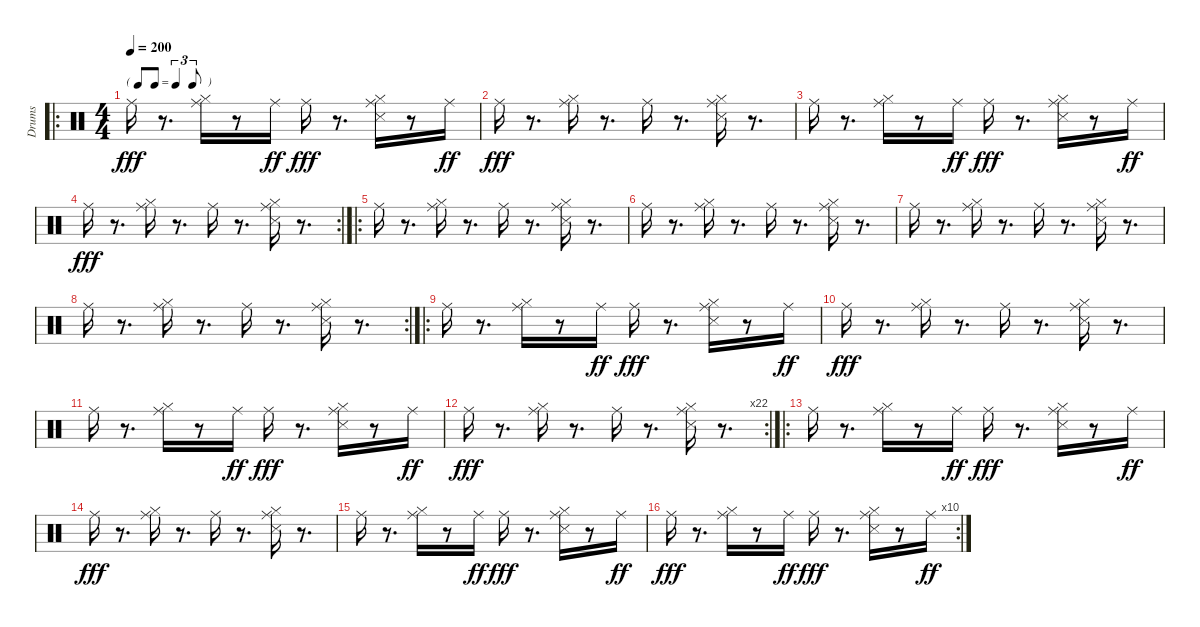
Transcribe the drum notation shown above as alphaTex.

\track ("Drums                                   " "Drums     ") {instrument percussion}
\staff {score}
\articulation defaults
\ro
\ts (4 4)
\tf triplet8th
\tempo 200
\clef neutral
\ks c "Ride (middle)".16{dy fff}
r.8{d} ("Hi-Hat (closed)" "Ride (middle)").16 r.8 "Ride (middle)".16{dy ff} "Ride (middle)".16{dy fff} r.8{d} ("Hi-Hat (closed)" "Snare (side stick) 3" "Ride (middle)").16 r.8 "Ride (middle)".16{dy ff} |
"Ride (middle)".16{dy fff} r.8{d} ("Hi-Hat (closed)" "Ride (middle)").16 r.8{d} "Ride (middle)".16 r.8{d} ("Hi-Hat (closed)" "Snare (side stick) 3" "Ride (middle)").16 r.8{d} |
"Ride (middle)".16 r.8{d} ("Hi-Hat (closed)" "Ride (middle)").16 r.8 "Ride (middle)".16{dy ff} "Ride (middle)".16{dy fff} r.8{d} ("Hi-Hat (closed)" "Snare (side stick) 3" "Ride (middle)").16 r.8 "Ride (middle)".16{dy ff} |
\rc 2 "Ride (middle)".16{dy fff}
r.8{d} ("Hi-Hat (closed)" "Ride (middle)").16 r.8{d} "Ride (middle)".16 r.8{d} ("Hi-Hat (closed)" "Snare (side stick) 3" "Ride (middle)").16 r.8{d} |
\ro "Ride (middle)".16
r.8{d} ("Hi-Hat (closed)" "Ride (middle)").16 r.8{d} "Ride (middle)".16 r.8{d} ("Hi-Hat (closed)" "Snare (side stick) 3" "Ride (middle)").16 r.8{d} |
"Ride (middle)".16 r.8{d} ("Hi-Hat (closed)" "Ride (middle)").16 r.8{d} "Ride (middle)".16 r.8{d} ("Hi-Hat (closed)" "Snare (side stick) 3" "Ride (middle)").16 r.8{d} |
"Ride (middle)".16 r.8{d} ("Hi-Hat (closed)" "Ride (middle)").16 r.8{d} "Ride (middle)".16 r.8{d} ("Hi-Hat (closed)" "Snare (side stick) 3" "Ride (middle)").16 r.8{d} |
\rc 2 "Ride (middle)".16
r.8{d} ("Hi-Hat (closed)" "Ride (middle)").16 r.8{d} "Ride (middle)".16 r.8{d} ("Hi-Hat (closed)" "Snare (side stick) 3" "Ride (middle)").16 r.8{d} |
\ro "Ride (middle)".16
r.8{d} ("Hi-Hat (closed)" "Ride (middle)").16 r.8 "Ride (middle)".16{dy ff} "Ride (middle)".16{dy fff} r.8{d} ("Hi-Hat (closed)" "Snare (side stick) 3" "Ride (middle)").16 r.8 "Ride (middle)".16{dy ff} |
"Ride (middle)".16{dy fff} r.8{d} ("Hi-Hat (closed)" "Ride (middle)").16 r.8{d} "Ride (middle)".16 r.8{d} ("Hi-Hat (closed)" "Snare (side stick) 3" "Ride (middle)").16 r.8{d} |
"Ride (middle)".16 r.8{d} ("Hi-Hat (closed)" "Ride (middle)").16 r.8 "Ride (middle)".16{dy ff} "Ride (middle)".16{dy fff} r.8{d} ("Hi-Hat (closed)" "Snare (side stick) 3" "Ride (middle)").16 r.8 "Ride (middle)".16{dy ff} |
\rc 22 "Ride (middle)".16{dy fff}
r.8{d} ("Hi-Hat (closed)" "Ride (middle)").16 r.8{d} "Ride (middle)".16 r.8{d} ("Hi-Hat (closed)" "Snare (side stick) 3" "Ride (middle)").16 r.8{d} |
\ro "Ride (middle)".16
r.8{d} ("Hi-Hat (closed)" "Ride (middle)").16 r.8 "Ride (middle)".16{dy ff} "Ride (middle)".16{dy fff} r.8{d} ("Hi-Hat (closed)" "Snare (side stick) 3" "Ride (middle)").16 r.8 "Ride (middle)".16{dy ff} |
"Ride (middle)".16{dy fff} r.8{d} ("Hi-Hat (closed)" "Ride (middle)").16 r.8{d} "Ride (middle)".16 r.8{d} ("Hi-Hat (closed)" "Snare (side stick) 3" "Ride (middle)").16 r.8{d} |
"Ride (middle)".16 r.8{d} ("Hi-Hat (closed)" "Ride (middle)").16 r.8 "Ride (middle)".16{dy ff} "Ride (middle)".16{dy fff} r.8{d} ("Hi-Hat (closed)" "Snare (side stick) 3" "Ride (middle)").16 r.8 "Ride (middle)".16{dy ff} |
\rc 10 "Ride (middle)".16{dy fff}
r.8{d} ("Hi-Hat (closed)" "Ride (middle)").16 r.8 "Ride (middle)".16{dy ff} "Ride (middle)".16{dy fff} r.8{d} ("Hi-Hat (closed)" "Snare (side stick) 3" "Ride (middle)").16 r.8 "Ride (middle)".16{dy ff}
